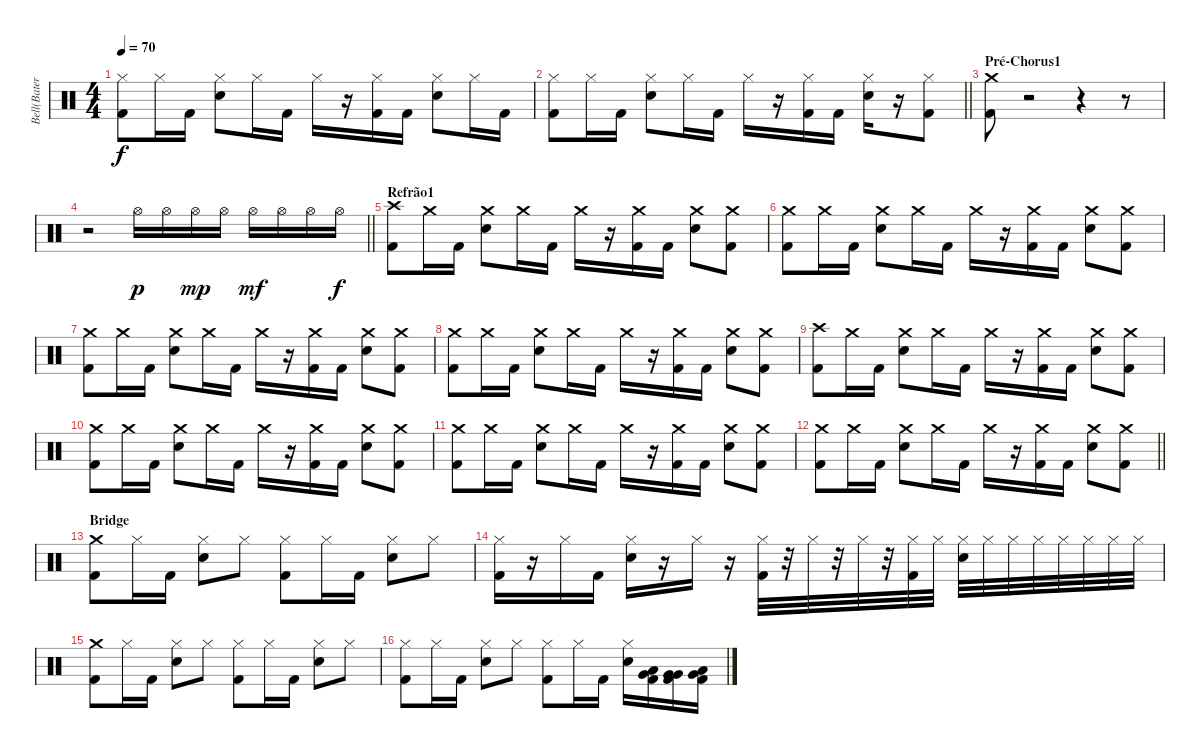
\track ("Bell(Bateria)" "Bell(Bater") {instrument percussion}
\staff {score}
\articulation defaults
\ts (4 4)
\tempo 70
\clef neutral
\ks c
("Hi-Hat (closed)" "Kick (hit) 2").8{dy f} "Hi-Hat (closed)".16 "Kick (hit) 2".16 ("Hi-Hat (closed)" "Electric Snare (hit)").8 "Hi-Hat (closed)".16 "Kick (hit) 2".16 "Hi-Hat (closed)".16 r.16 ("Hi-Hat (closed)" "Kick (hit) 2").16 "Kick (hit) 2".16 ("Hi-Hat (closed)" "Electric Snare (hit)").8 "Hi-Hat (closed)".16 "Kick (hit) 2".16 |
\barLineRight lightlight
("Hi-Hat (closed)" "Kick (hit) 2").8 "Hi-Hat (closed)".16 "Kick (hit) 2".16 ("Hi-Hat (closed)" "Electric Snare (hit)").8 "Hi-Hat (closed)".16 "Kick (hit) 2".16 "Hi-Hat (closed)".16 r.16 ("Hi-Hat (closed)" "Kick (hit) 2").16 "Kick (hit) 2".16 ("Hi-Hat (closed)" "Electric Snare (hit)").16 r.16 ("Hi-Hat (closed)" "Kick (hit) 2").8 |
\section ("" "Pré-Chorus1")
("Crash medium (hit)" "Kick (hit) 2").8 r.2 r.4 r.8{volume 0} |
\barLineRight lightlight
r.2{volume 16} "Hi-Hat (open)".16{dy p} "Hi-Hat (open)".16 "Hi-Hat (open)".16{dy mp} "Hi-Hat (open)".16 "Hi-Hat (open)".16{dy mf} "Hi-Hat (open)".16 "Hi-Hat (open)".16 "Hi-Hat (open)".16{dy f} |
\section ("" "Refrão1")
("Crash high (hit)" "Kick (hit) 2").8 "Crash medium (hit)".16 "Kick (hit) 2".16 ("Crash medium (hit)" "Electric Snare (hit)").8 "Crash medium (hit)".16 "Kick (hit) 2".16 "Crash medium (hit)".16 r.16 ("Crash medium (hit)" "Kick (hit) 2").16 "Kick (hit) 2".16 ("Crash medium (hit)" "Electric Snare (hit)").8 ("Crash medium (hit)" "Kick (hit) 2").8 |
("Crash medium (hit)" "Kick (hit) 2").8 "Crash medium (hit)".16 "Kick (hit) 2".16 ("Crash medium (hit)" "Electric Snare (hit)").8 "Crash medium (hit)".16 "Kick (hit) 2".16 "Crash medium (hit)".16 r.16 ("Crash medium (hit)" "Kick (hit) 2").16 "Kick (hit) 2".16 ("Crash medium (hit)" "Electric Snare (hit)").8 ("Crash medium (hit)" "Kick (hit) 2").8 |
("Crash medium (hit)" "Kick (hit) 2").8 "Crash medium (hit)".16 "Kick (hit) 2".16 ("Crash medium (hit)" "Electric Snare (hit)").8 "Crash medium (hit)".16 "Kick (hit) 2".16 "Crash medium (hit)".16 r.16 ("Crash medium (hit)" "Kick (hit) 2").16 "Kick (hit) 2".16 ("Crash medium (hit)" "Electric Snare (hit)").8 ("Crash medium (hit)" "Kick (hit) 2").8 |
("Crash medium (hit)" "Kick (hit) 2").8 "Crash medium (hit)".16 "Kick (hit) 2".16 ("Crash medium (hit)" "Electric Snare (hit)").8 "Crash medium (hit)".16 "Kick (hit) 2".16 "Crash medium (hit)".16 r.16 ("Crash medium (hit)" "Kick (hit) 2").16 "Kick (hit) 2".16 ("Crash medium (hit)" "Electric Snare (hit)").8 ("Crash medium (hit)" "Kick (hit) 2").8 |
("Crash high (hit)" "Kick (hit) 2").8 "Crash medium (hit)".16 "Kick (hit) 2".16 ("Crash medium (hit)" "Electric Snare (hit)").8 "Crash medium (hit)".16 "Kick (hit) 2".16 "Crash medium (hit)".16 r.16 ("Crash medium (hit)" "Kick (hit) 2").16 "Kick (hit) 2".16 ("Crash medium (hit)" "Electric Snare (hit)").8 ("Crash medium (hit)" "Kick (hit) 2").8 |
("Crash medium (hit)" "Kick (hit) 2").8 "Crash medium (hit)".16 "Kick (hit) 2".16 ("Crash medium (hit)" "Electric Snare (hit)").8 "Crash medium (hit)".16 "Kick (hit) 2".16 "Crash medium (hit)".16 r.16 ("Crash medium (hit)" "Kick (hit) 2").16 "Kick (hit) 2".16 ("Crash medium (hit)" "Electric Snare (hit)").8 ("Crash medium (hit)" "Kick (hit) 2").8 |
("Crash medium (hit)" "Kick (hit) 2").8 "Crash medium (hit)".16 "Kick (hit) 2".16 ("Crash medium (hit)" "Electric Snare (hit)").8 "Crash medium (hit)".16 "Kick (hit) 2".16 "Crash medium (hit)".16 r.16 ("Crash medium (hit)" "Kick (hit) 2").16 "Kick (hit) 2".16 ("Crash medium (hit)" "Electric Snare (hit)").8 ("Crash medium (hit)" "Kick (hit) 2").8 |
\barLineRight lightlight
("Crash medium (hit)" "Kick (hit) 2").8 "Crash medium (hit)".16 "Kick (hit) 2".16 ("Crash medium (hit)" "Electric Snare (hit)").8 "Crash medium (hit)".16 "Kick (hit) 2".16 "Crash medium (hit)".16 r.16 ("Crash medium (hit)" "Kick (hit) 2").16 "Kick (hit) 2".16 ("Crash medium (hit)" "Electric Snare (hit)").8 ("Crash medium (hit)" "Kick (hit) 2").8 |
\section ("" "Bridge")
("Crash medium (hit)" "Kick (hit) 2").8 "Hi-Hat (closed)".16 "Kick (hit) 2".16 ("Hi-Hat (closed)" "Electric Snare (hit)").8 "Hi-Hat (closed)".8 ("Hi-Hat (closed)" "Kick (hit) 2").8 "Hi-Hat (closed)".16 "Kick (hit) 2".16 ("Hi-Hat (closed)" "Electric Snare (hit)").8 "Hi-Hat (closed)".8 |
("Hi-Hat (closed)" "Kick (hit) 2").16 r.16 "Hi-Hat (closed)".16 "Kick (hit) 2".16 ("Hi-Hat (closed)" "Electric Snare (hit)").16 r.16 "Hi-Hat (closed)".16 r.16 ("Hi-Hat (closed)" "Kick (hit) 2").32 r.32 "Hi-Hat (closed)".32 r.32 "Hi-Hat (closed)".32 r.32 ("Hi-Hat (closed)" "Kick (hit) 2").32 "Hi-Hat (closed)".32 ("Hi-Hat (closed)" "Electric Snare (hit)").32 "Hi-Hat (closed)".32 "Hi-Hat (closed)".32 "Hi-Hat (closed)".32 "Hi-Hat (closed)".32 "Hi-Hat (closed)".32 "Hi-Hat (closed)".32 "Hi-Hat (closed)".32 |
("Crash medium (hit)" "Kick (hit) 2").8 "Hi-Hat (closed)".16 "Kick (hit) 2".16 ("Hi-Hat (closed)" "Electric Snare (hit)").8 "Hi-Hat (closed)".8 ("Hi-Hat (closed)" "Kick (hit) 2").8 "Hi-Hat (closed)".16 "Kick (hit) 2".16 ("Hi-Hat (closed)" "Electric Snare (hit)").8 "Hi-Hat (closed)".8 |
("Hi-Hat (closed)" "Kick (hit) 2").8 "Hi-Hat (closed)".16 "Kick (hit) 2".16 ("Hi-Hat (closed)" "Electric Snare (hit)").8 "Hi-Hat (closed)".8 ("Hi-Hat (closed)" "Kick (hit) 2").8 "Hi-Hat (closed)".16 "Kick (hit) 2".16 ("Hi-Hat (closed)" "Electric Snare (hit)").16 ("Low Tom (hit)" "Very Low Tom (hit)" "Kick (hit) 2").16 ("Very Low Tom (hit)" "Very Low Tom (hit)" "Kick (hit) 2").16 ("Very Low Tom (hit)" "Low Floor Tom (hit)" "Kick (hit) 2").16
